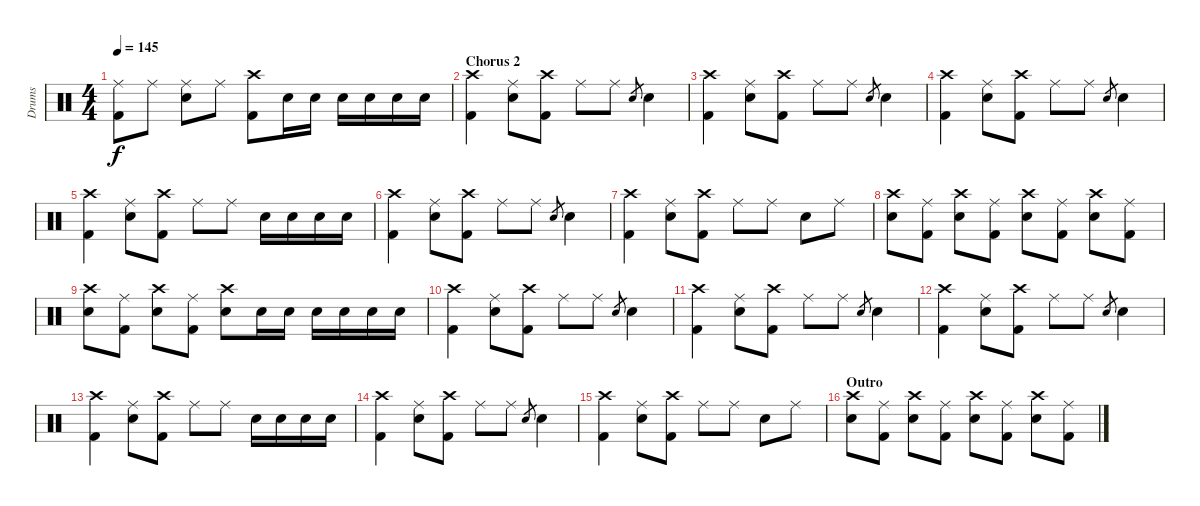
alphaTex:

\track ("Drums" "Drums") {instrument percussion}
\staff {score}
\articulation defaults
\ts (4 4)
\tempo 145
\clef neutral
\ks c
("Ride (middle)" "Kick (hit) 2").8{dy f} "Ride (middle)".8 ("Ride (middle)" "Electric Snare (hit)").8 "Ride (middle)".8 ("Crash high (hit)" "Kick (hit) 2").8 "Electric Snare (hit)".16 "Electric Snare (hit)".16 "Electric Snare (hit)".16 "Electric Snare (hit)".16 "Electric Snare (hit)".16 "Electric Snare (hit)".16 |
\section ("" "Chorus 2")
("Crash high (hit)" "Kick (hit) 2").4 ("Ride (middle)" "Electric Snare (hit)").8 ("Crash high (hit)" "Kick (hit) 2").8 "Ride (middle)".8 "Ride (middle)".8 "Electric Snare (hit)".8{gr} "Electric Snare (hit)".4 |
("Crash high (hit)" "Kick (hit) 2").4 ("Ride (middle)" "Electric Snare (hit)").8 ("Crash high (hit)" "Kick (hit) 2").8 "Ride (middle)".8 "Ride (middle)".8 "Electric Snare (hit)".8{gr} "Electric Snare (hit)".4 |
("Crash high (hit)" "Kick (hit) 2").4 ("Ride (middle)" "Electric Snare (hit)").8 ("Crash high (hit)" "Kick (hit) 2").8 "Ride (middle)".8 "Ride (middle)".8 "Electric Snare (hit)".8{gr} "Electric Snare (hit)".4 |
("Crash high (hit)" "Kick (hit) 2").4 ("Ride (middle)" "Electric Snare (hit)").8 ("Crash high (hit)" "Kick (hit) 2").8 "Ride (middle)".8 "Ride (middle)".8 "Electric Snare (hit)".16 "Electric Snare (hit)".16 "Electric Snare (hit)".16 "Electric Snare (hit)".16 |
("Crash high (hit)" "Kick (hit) 2").4 ("Ride (middle)" "Electric Snare (hit)").8 ("Crash high (hit)" "Kick (hit) 2").8 "Ride (middle)".8 "Ride (middle)".8 "Electric Snare (hit)".8{gr} "Electric Snare (hit)".4 |
("Crash high (hit)" "Kick (hit) 2").4 ("Ride (middle)" "Electric Snare (hit)").8 ("Crash high (hit)" "Kick (hit) 2").8 "Ride (middle)".8 "Ride (middle)".8 "Electric Snare (hit)".8 "Ride (middle)".8 |
("Crash high (hit)" "Electric Snare (hit)").8 ("Ride (middle)" "Kick (hit) 2").8 ("Crash high (hit)" "Electric Snare (hit)").8 ("Ride (middle)" "Kick (hit) 2").8 ("Crash high (hit)" "Electric Snare (hit)").8 ("Ride (middle)" "Kick (hit) 2").8 ("Crash high (hit)" "Electric Snare (hit)").8 ("Ride (middle)" "Kick (hit) 2").8 |
("Crash high (hit)" "Electric Snare (hit)").8 ("Ride (middle)" "Kick (hit) 2").8 ("Crash high (hit)" "Electric Snare (hit)").8 ("Ride (middle)" "Kick (hit) 2").8 ("Crash high (hit)" "Electric Snare (hit)").8 "Electric Snare (hit)".16 "Electric Snare (hit)".16 "Electric Snare (hit)".16 "Electric Snare (hit)".16 "Electric Snare (hit)".16 "Electric Snare (hit)".16 |
("Crash high (hit)" "Kick (hit) 2").4 ("Ride (middle)" "Electric Snare (hit)").8 ("Crash high (hit)" "Kick (hit) 2").8 "Ride (middle)".8 "Ride (middle)".8 "Electric Snare (hit)".8{gr} "Electric Snare (hit)".4 |
("Crash high (hit)" "Kick (hit) 2").4 ("Ride (middle)" "Electric Snare (hit)").8 ("Crash high (hit)" "Kick (hit) 2").8 "Ride (middle)".8 "Ride (middle)".8 "Electric Snare (hit)".8{gr} "Electric Snare (hit)".4 |
("Crash high (hit)" "Kick (hit) 2").4 ("Ride (middle)" "Electric Snare (hit)").8 ("Crash high (hit)" "Kick (hit) 2").8 "Ride (middle)".8 "Ride (middle)".8 "Electric Snare (hit)".8{gr} "Electric Snare (hit)".4 |
("Crash high (hit)" "Kick (hit) 2").4 ("Ride (middle)" "Electric Snare (hit)").8 ("Crash high (hit)" "Kick (hit) 2").8 "Ride (middle)".8 "Ride (middle)".8 "Electric Snare (hit)".16 "Electric Snare (hit)".16 "Electric Snare (hit)".16 "Electric Snare (hit)".16 |
("Crash high (hit)" "Kick (hit) 2").4 ("Ride (middle)" "Electric Snare (hit)").8 ("Crash high (hit)" "Kick (hit) 2").8 "Ride (middle)".8 "Ride (middle)".8 "Electric Snare (hit)".8{gr} "Electric Snare (hit)".4 |
("Crash high (hit)" "Kick (hit) 2").4 ("Ride (middle)" "Electric Snare (hit)").8 ("Crash high (hit)" "Kick (hit) 2").8 "Ride (middle)".8 "Ride (middle)".8 "Electric Snare (hit)".8 "Ride (middle)".8 |
\section ("" "Outro")
("Crash high (hit)" "Electric Snare (hit)").8 ("Ride (middle)" "Kick (hit) 2").8 ("Crash high (hit)" "Electric Snare (hit)").8 ("Ride (middle)" "Kick (hit) 2").8 ("Crash high (hit)" "Electric Snare (hit)").8 ("Ride (middle)" "Kick (hit) 2").8 ("Crash high (hit)" "Electric Snare (hit)").8 ("Ride (middle)" "Kick (hit) 2").8
